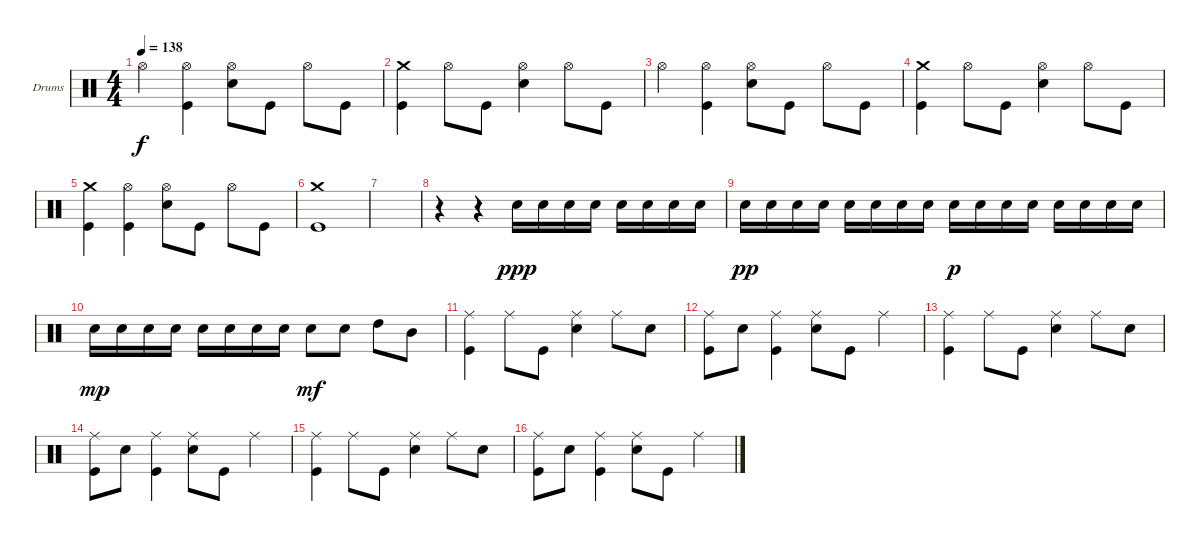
\defaultSystemsLayout 4
\bracketExtendMode groupsimilarinstruments
\firstSystemTrackNameOrientation horizontal
\otherSystemsTrackNameOrientation horizontal
\track ("Drumkit" "Drums") {instrument percussion}
\staff {score}
\articulation defaults
\ts (4 4)
\tempo 138
\clef neutral
\ks c "Hi-Hat (open)".4{dy f}
("Hi-Hat (open)" "Kick (hit)").4 ("Hi-Hat (open)" "Snare (hit) 2").8 "Kick (hit)".8 "Hi-Hat (open)".8 "Kick (hit)".8 |
("Kick (hit)" "Crash medium (hit)").4 "Hi-Hat (open)".8 "Kick (hit)".8 ("Hi-Hat (open)" "Snare (hit) 2").4 "Hi-Hat (open)".8 "Kick (hit)".8 |
"Hi-Hat (open)".4 ("Hi-Hat (open)" "Kick (hit)").4 ("Hi-Hat (open)" "Snare (hit) 2").8 "Kick (hit)".8 "Hi-Hat (open)".8 "Kick (hit)".8 |
("Kick (hit)" "Crash medium (hit)").4 "Hi-Hat (open)".8 "Kick (hit)".8 ("Hi-Hat (open)" "Snare (hit) 2").4 "Hi-Hat (open)".8 "Kick (hit)".8 |
("Crash medium (hit)" "Kick (hit)").4 ("Hi-Hat (open)" "Kick (hit)").4 ("Hi-Hat (open)" "Snare (hit) 2").8 "Kick (hit)".8 "Hi-Hat (open)".8 "Kick (hit)".8 |
("Kick (hit)" "Crash medium (hit)").1 |
|
r.4 r.4 "Snare (hit) 2".16{dy ppp} "Snare (hit) 2".16 "Snare (hit) 2".16 "Snare (hit) 2".16 "Snare (hit) 2".16 "Snare (hit) 2".16 "Snare (hit) 2".16 "Snare (hit) 2".16 |
"Snare (hit) 2".16{dy pp} "Snare (hit) 2".16 "Snare (hit) 2".16 "Snare (hit) 2".16 "Snare (hit) 2".16 "Snare (hit) 2".16 "Snare (hit) 2".16 "Snare (hit) 2".16 "Snare (hit) 2".16{dy p} "Snare (hit) 2".16 "Snare (hit) 2".16 "Snare (hit) 2".16 "Snare (hit) 2".16 "Snare (hit) 2".16 "Snare (hit) 2".16 "Snare (hit) 2".16 |
"Snare (hit) 2".16{dy mp} "Snare (hit) 2".16 "Snare (hit) 2".16 "Snare (hit) 2".16 "Snare (hit) 2".16 "Snare (hit) 2".16 "Snare (hit) 2".16 "Snare (hit) 2".16 "Snare (hit) 2".8{dy mf} "Snare (hit) 2".8 "High Tom (hit)".8 "Mid Tom (hit)".8 |
("Kick (hit)" "Ride (middle)").4 "Ride (middle)".8 "Kick (hit)".8 ("Ride (middle)" "Snare (hit) 2").4 "Ride (middle)".8 "Snare (hit) 2".8 |
("Kick (hit)" "Ride (middle)").8 "Snare (hit) 2".8 ("Ride (middle)" "Kick (hit)").4 ("Ride (middle)" "Snare (hit) 2").8 "Kick (hit)".8 "Ride (middle)".4 |
("Kick (hit)" "Ride (middle)").4 "Ride (middle)".8 "Kick (hit)".8 ("Ride (middle)" "Snare (hit) 2").4 "Ride (middle)".8 "Snare (hit) 2".8 |
("Kick (hit)" "Ride (middle)").8 "Snare (hit) 2".8 ("Ride (middle)" "Kick (hit)").4 ("Ride (middle)" "Snare (hit) 2").8 "Kick (hit)".8 "Ride (middle)".4 |
("Kick (hit)" "Ride (middle)").4 "Ride (middle)".8 "Kick (hit)".8 ("Ride (middle)" "Snare (hit) 2").4 "Ride (middle)".8 "Snare (hit) 2".8 |
("Kick (hit)" "Ride (middle)").8 "Snare (hit) 2".8 ("Ride (middle)" "Kick (hit)").4 ("Ride (middle)" "Snare (hit) 2").8 "Kick (hit)".8 "Ride (middle)".4
